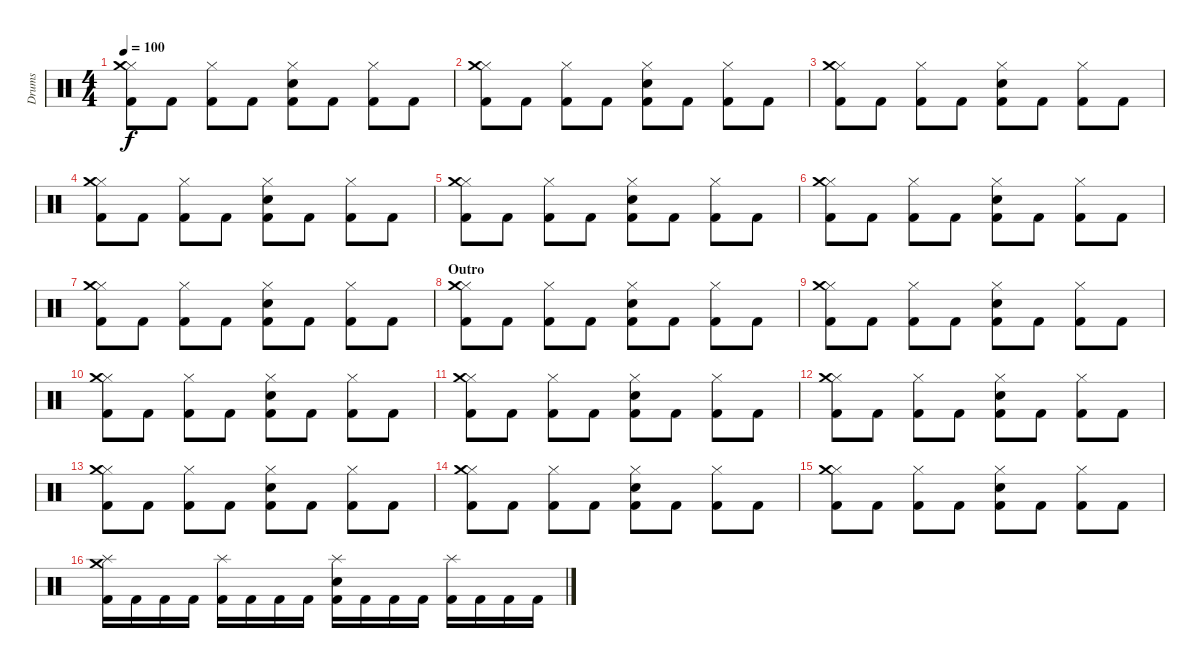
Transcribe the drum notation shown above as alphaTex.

\track ("Drums" "Drums") {instrument percussion}
\staff {score}
\articulation defaults
\ts (4 4)
\tempo 100
\clef neutral
\ks c
("Hi-Hat (closed)" "Crash medium (hit)" "Kick (hit) 2").8{dy f} "Kick (hit) 2".8 ("Hi-Hat (closed)" "Kick (hit) 2").8 "Kick (hit) 2".8 ("Hi-Hat (closed)" "Snare (hit) 2" "Kick (hit) 2").8 "Kick (hit) 2".8 ("Hi-Hat (closed)" "Kick (hit) 2").8 "Kick (hit) 2".8 |
("Hi-Hat (closed)" "Crash medium (hit)" "Kick (hit) 2").8 "Kick (hit) 2".8 ("Hi-Hat (closed)" "Kick (hit) 2").8 "Kick (hit) 2".8 ("Hi-Hat (closed)" "Snare (hit) 2" "Kick (hit) 2").8 "Kick (hit) 2".8 ("Hi-Hat (closed)" "Kick (hit) 2").8 "Kick (hit) 2".8 |
("Hi-Hat (closed)" "Crash medium (hit)" "Kick (hit) 2").8 "Kick (hit) 2".8 ("Hi-Hat (closed)" "Kick (hit) 2").8 "Kick (hit) 2".8 ("Hi-Hat (closed)" "Snare (hit) 2" "Kick (hit) 2").8 "Kick (hit) 2".8 ("Hi-Hat (closed)" "Kick (hit) 2").8 "Kick (hit) 2".8 |
("Hi-Hat (closed)" "Crash medium (hit)" "Kick (hit) 2").8 "Kick (hit) 2".8 ("Hi-Hat (closed)" "Kick (hit) 2").8 "Kick (hit) 2".8 ("Hi-Hat (closed)" "Snare (hit) 2" "Kick (hit) 2").8 "Kick (hit) 2".8 ("Hi-Hat (closed)" "Kick (hit) 2").8 "Kick (hit) 2".8 |
("Hi-Hat (closed)" "Crash medium (hit)" "Kick (hit) 2").8 "Kick (hit) 2".8 ("Hi-Hat (closed)" "Kick (hit) 2").8 "Kick (hit) 2".8 ("Hi-Hat (closed)" "Snare (hit) 2" "Kick (hit) 2").8 "Kick (hit) 2".8 ("Hi-Hat (closed)" "Kick (hit) 2").8 "Kick (hit) 2".8 |
("Hi-Hat (closed)" "Crash medium (hit)" "Kick (hit) 2").8 "Kick (hit) 2".8 ("Hi-Hat (closed)" "Kick (hit) 2").8 "Kick (hit) 2".8 ("Hi-Hat (closed)" "Snare (hit) 2" "Kick (hit) 2").8 "Kick (hit) 2".8 ("Hi-Hat (closed)" "Kick (hit) 2").8 "Kick (hit) 2".8 |
("Hi-Hat (closed)" "Crash medium (hit)" "Kick (hit) 2").8 "Kick (hit) 2".8 ("Hi-Hat (closed)" "Kick (hit) 2").8 "Kick (hit) 2".8 ("Hi-Hat (closed)" "Snare (hit) 2" "Kick (hit) 2").8 "Kick (hit) 2".8 ("Hi-Hat (closed)" "Kick (hit) 2").8 "Kick (hit) 2".8 |
\section ("" "Outro")
("Hi-Hat (closed)" "Crash medium (hit)" "Kick (hit) 2").8 "Kick (hit) 2".8 ("Hi-Hat (closed)" "Kick (hit) 2").8 "Kick (hit) 2".8 ("Hi-Hat (closed)" "Snare (hit) 2" "Kick (hit) 2").8 "Kick (hit) 2".8 ("Hi-Hat (closed)" "Kick (hit) 2").8 "Kick (hit) 2".8 |
("Hi-Hat (closed)" "Crash medium (hit)" "Kick (hit) 2").8 "Kick (hit) 2".8 ("Hi-Hat (closed)" "Kick (hit) 2").8 "Kick (hit) 2".8 ("Hi-Hat (closed)" "Snare (hit) 2" "Kick (hit) 2").8 "Kick (hit) 2".8 ("Hi-Hat (closed)" "Kick (hit) 2").8 "Kick (hit) 2".8 |
("Hi-Hat (closed)" "Crash medium (hit)" "Kick (hit) 2").8 "Kick (hit) 2".8 ("Hi-Hat (closed)" "Kick (hit) 2").8 "Kick (hit) 2".8 ("Hi-Hat (closed)" "Snare (hit) 2" "Kick (hit) 2").8 "Kick (hit) 2".8 ("Hi-Hat (closed)" "Kick (hit) 2").8 "Kick (hit) 2".8 |
("Hi-Hat (closed)" "Crash medium (hit)" "Kick (hit) 2").8 "Kick (hit) 2".8 ("Hi-Hat (closed)" "Kick (hit) 2").8 "Kick (hit) 2".8 ("Hi-Hat (closed)" "Snare (hit) 2" "Kick (hit) 2").8 "Kick (hit) 2".8 ("Hi-Hat (closed)" "Kick (hit) 2").8 "Kick (hit) 2".8 |
("Hi-Hat (closed)" "Crash medium (hit)" "Kick (hit) 2").8 "Kick (hit) 2".8 ("Hi-Hat (closed)" "Kick (hit) 2").8 "Kick (hit) 2".8 ("Hi-Hat (closed)" "Snare (hit) 2" "Kick (hit) 2").8 "Kick (hit) 2".8 ("Hi-Hat (closed)" "Kick (hit) 2").8 "Kick (hit) 2".8 |
("Hi-Hat (closed)" "Crash medium (hit)" "Kick (hit) 2").8 "Kick (hit) 2".8 ("Hi-Hat (closed)" "Kick (hit) 2").8 "Kick (hit) 2".8 ("Hi-Hat (closed)" "Snare (hit) 2" "Kick (hit) 2").8 "Kick (hit) 2".8 ("Hi-Hat (closed)" "Kick (hit) 2").8 "Kick (hit) 2".8 |
("Hi-Hat (closed)" "Crash medium (hit)" "Kick (hit) 2").8 "Kick (hit) 2".8 ("Hi-Hat (closed)" "Kick (hit) 2").8 "Kick (hit) 2".8 ("Hi-Hat (closed)" "Snare (hit) 2" "Kick (hit) 2").8 "Kick (hit) 2".8 ("Hi-Hat (closed)" "Kick (hit) 2").8 "Kick (hit) 2".8 |
("Hi-Hat (closed)" "Crash medium (hit)" "Kick (hit) 2").8 "Kick (hit) 2".8 ("Hi-Hat (closed)" "Kick (hit) 2").8 "Kick (hit) 2".8 ("Hi-Hat (closed)" "Snare (hit) 2" "Kick (hit) 2").8 "Kick (hit) 2".8 ("Hi-Hat (closed)" "Kick (hit) 2").8 "Kick (hit) 2".8 |
("Splash (hit)" "Crash medium (hit)" "Kick (hit) 2").16 "Kick (hit) 2".16 "Kick (hit) 2".16 "Kick (hit) 2".16 ("Splash (hit)" "Kick (hit) 2").16 "Kick (hit) 2".16 "Kick (hit) 2".16 "Kick (hit) 2".16 ("Splash (hit)" "Snare (hit) 2" "Kick (hit) 2").16 "Kick (hit) 2".16 "Kick (hit) 2".16 "Kick (hit) 2".16 ("Splash (hit)" "Kick (hit) 2").16 "Kick (hit) 2".16 "Kick (hit) 2".16 "Kick (hit) 2".16
